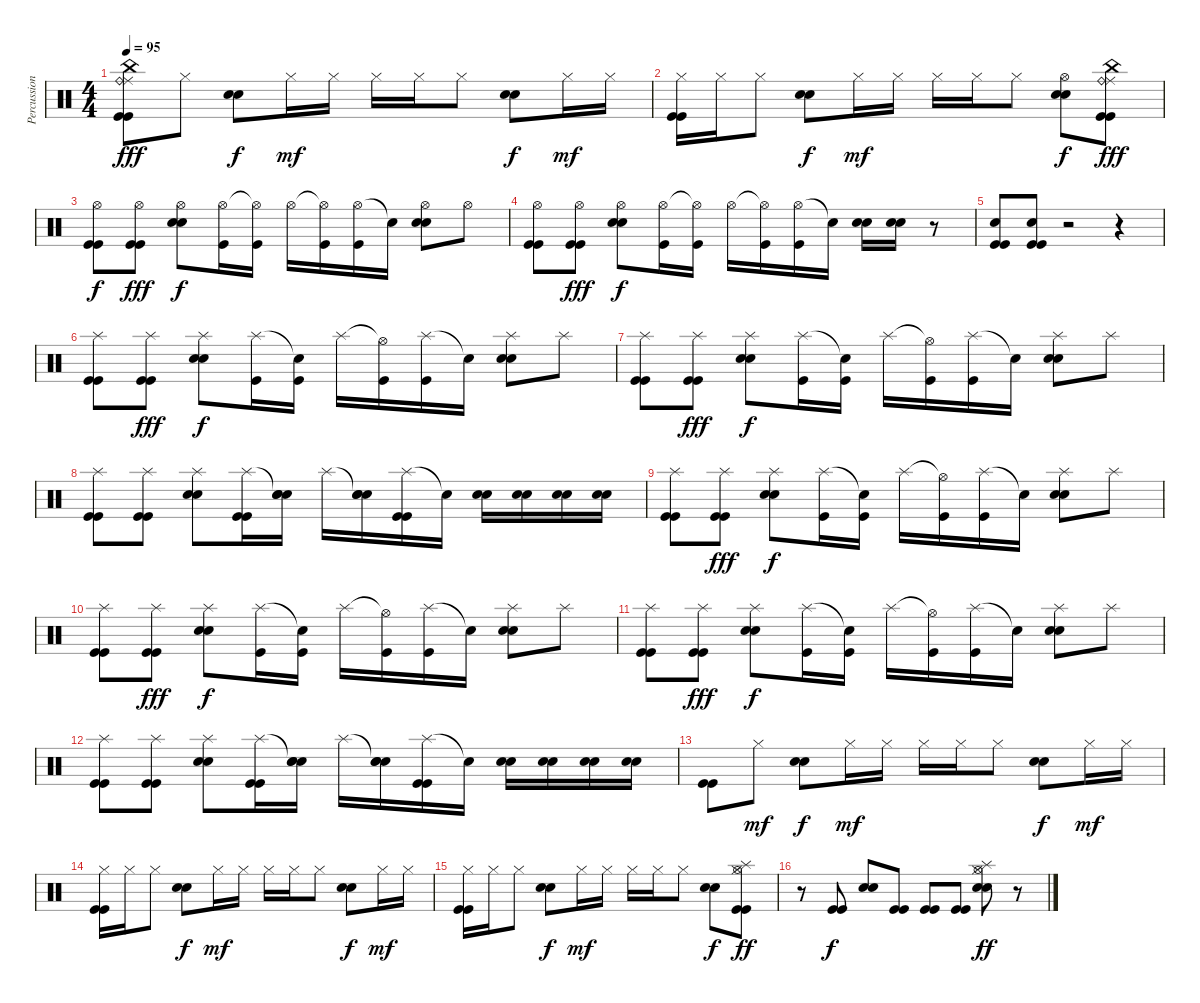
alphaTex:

\track ("Percussions" "Percussion") {instrument percussion}
\staff {score}
\articulation defaults
\ts (4 4)
\tempo 95
\clef neutral
\ks c
("China (hit)" "Ride (middle)" "Ride (bell)" "Kick (hit)" "Kick (hit)").8{dy fff} "Hi-Hat (closed)".8 ("Electric Snare (hit)" "Electric Snare (hit)").8{dy f} "Hi-Hat (closed)".16{dy mf} "Hi-Hat (closed)".16 "Hi-Hat (closed)".16 "Hi-Hat (closed)".16 "Hi-Hat (closed)".8 ("Electric Snare (hit)" "Electric Snare (hit)").8{dy f} "Hi-Hat (closed)".16{dy mf} "Hi-Hat (closed)".16 |
("Hi-Hat (closed)" "Kick (hit)" "Kick (hit)").16 "Hi-Hat (closed)".16 "Hi-Hat (closed)".8 ("Electric Snare (hit)" "Electric Snare (hit)").8{dy f} "Hi-Hat (closed)".16{dy mf} "Hi-Hat (closed)".16 "Hi-Hat (closed)".16 "Hi-Hat (closed)".16 "Hi-Hat (closed)".8 ("Hi-Hat (open)" "Electric Snare (hit)" "Electric Snare (hit)").8{dy f} ("China (hit)" "Ride (middle)" "Ride (bell)" "Kick (hit)" "Kick (hit)").8{dy fff} |
("Hi-Hat (open)" "Kick (hit)" "Kick (hit)").8{dy f} ("Hi-Hat (open)" "Kick (hit)" "Kick (hit)").8{dy fff} ("Hi-Hat (open)" "Electric Snare (hit)" "Electric Snare (hit)").8{dy f} ("Hi-Hat (open)" "Kick (hit)").16 ("Hi-Hat (open)"{t} "Kick (hit)").16 "Hi-Hat (open)".16 ("Hi-Hat (open)"{t} "Kick (hit)").16 ("Hi-Hat (open)" "Kick (hit)").16 "Snare (hit)"{t}.16 ("Hi-Hat (open)" "Electric Snare (hit)" "Electric Snare (hit)").8 "Hi-Hat (open)".8 |
("Hi-Hat (open)" "Kick (hit)" "Kick (hit)").8 ("Hi-Hat (open)" "Kick (hit)" "Kick (hit)").8{dy fff} ("Hi-Hat (open)" "Electric Snare (hit)" "Electric Snare (hit)").8{dy f} ("Hi-Hat (open)" "Kick (hit)").16 ("Hi-Hat (open)"{t} "Kick (hit)").16 "Hi-Hat (open)".16 ("Hi-Hat (open)"{t} "Kick (hit)").16 ("Hi-Hat (open)" "Kick (hit)").16 "Snare (hit)"{t}.16 ("Electric Snare (hit)" "Electric Snare (hit)").16 ("Electric Snare (hit)" "Electric Snare (hit)").16 r.8 |
("Electric Snare (hit)" "Kick (hit)" "Kick (hit)").8 ("Electric Snare (hit)" "Kick (hit)" "Kick (hit)").8 r.2 r.4 |
("Splash (hit)" "Kick (hit)" "Kick (hit)").8 ("Splash (hit)" "Kick (hit)" "Kick (hit)").8{dy fff} ("Splash (hit)" "Electric Snare (hit)" "Electric Snare (hit)").8{dy f} ("Splash (hit)" "Kick (hit)").16 ("Snare (hit)"{t} "Kick (hit)").16 "Splash (hit)".16 ("Hi-Hat (open)"{t} "Kick (hit)").16 ("Splash (hit)" "Kick (hit)").16 "Snare (hit)"{t}.16 ("Splash (hit)" "Electric Snare (hit)" "Electric Snare (hit)").8 "Splash (hit)".8 |
("Splash (hit)" "Kick (hit)" "Kick (hit)").8 ("Splash (hit)" "Kick (hit)" "Kick (hit)").8{dy fff} ("Splash (hit)" "Electric Snare (hit)" "Electric Snare (hit)").8{dy f} ("Splash (hit)" "Kick (hit)").16 ("Snare (hit)"{t} "Kick (hit)").16 "Splash (hit)".16 ("Hi-Hat (open)"{t} "Kick (hit)").16 ("Splash (hit)" "Kick (hit)").16 "Snare (hit)"{t}.16 ("Splash (hit)" "Electric Snare (hit)" "Electric Snare (hit)").8 "Splash (hit)".8 |
("Splash (hit)" "Kick (hit)" "Kick (hit)").8 ("Splash (hit)" "Kick (hit)" "Kick (hit)").8 ("Splash (hit)" "Electric Snare (hit)" "Electric Snare (hit)").8 ("Splash (hit)" "Kick (hit)" "Kick (hit)").16 ("Snare (hit)"{t} "Electric Snare (hit)" "Electric Snare (hit)").16 "Splash (hit)".16 ("Snare (hit)"{t} "Electric Snare (hit)" "Electric Snare (hit)").16 ("Splash (hit)" "Kick (hit)" "Kick (hit)").16 "Snare (hit)"{t}.16 ("Electric Snare (hit)" "Electric Snare (hit)").16 ("Electric Snare (hit)" "Electric Snare (hit)").16 ("Electric Snare (hit)" "Electric Snare (hit)").16 ("Electric Snare (hit)" "Electric Snare (hit)").16 |
("Splash (hit)" "Kick (hit)" "Kick (hit)").8 ("Splash (hit)" "Kick (hit)" "Kick (hit)").8{dy fff} ("Splash (hit)" "Electric Snare (hit)" "Electric Snare (hit)").8{dy f} ("Splash (hit)" "Kick (hit)").16 ("Snare (hit)"{t} "Kick (hit)").16 "Splash (hit)".16 ("Hi-Hat (open)"{t} "Kick (hit)").16 ("Splash (hit)" "Kick (hit)").16 "Snare (hit)"{t}.16 ("Splash (hit)" "Electric Snare (hit)" "Electric Snare (hit)").8 "Splash (hit)".8 |
("Splash (hit)" "Kick (hit)" "Kick (hit)").8 ("Splash (hit)" "Kick (hit)" "Kick (hit)").8{dy fff} ("Splash (hit)" "Electric Snare (hit)" "Electric Snare (hit)").8{dy f} ("Splash (hit)" "Kick (hit)").16 ("Snare (hit)"{t} "Kick (hit)").16 "Splash (hit)".16 ("Hi-Hat (open)"{t} "Kick (hit)").16 ("Splash (hit)" "Kick (hit)").16 "Snare (hit)"{t}.16 ("Splash (hit)" "Electric Snare (hit)" "Electric Snare (hit)").8 "Splash (hit)".8 |
("Splash (hit)" "Kick (hit)" "Kick (hit)").8 ("Splash (hit)" "Kick (hit)" "Kick (hit)").8{dy fff} ("Splash (hit)" "Electric Snare (hit)" "Electric Snare (hit)").8{dy f} ("Splash (hit)" "Kick (hit)").16 ("Snare (hit)"{t} "Kick (hit)").16 "Splash (hit)".16 ("Hi-Hat (open)"{t} "Kick (hit)").16 ("Splash (hit)" "Kick (hit)").16 "Snare (hit)"{t}.16 ("Splash (hit)" "Electric Snare (hit)" "Electric Snare (hit)").8 "Splash (hit)".8 |
("Splash (hit)" "Kick (hit)" "Kick (hit)").8 ("Splash (hit)" "Kick (hit)" "Kick (hit)").8 ("Splash (hit)" "Electric Snare (hit)" "Electric Snare (hit)").8 ("Splash (hit)" "Kick (hit)" "Kick (hit)").16 ("Snare (hit)"{t} "Electric Snare (hit)" "Electric Snare (hit)").16 "Splash (hit)".16 ("Snare (hit)"{t} "Electric Snare (hit)" "Electric Snare (hit)").16 ("Splash (hit)" "Kick (hit)" "Kick (hit)").16 "Snare (hit)"{t}.16 ("Electric Snare (hit)" "Electric Snare (hit)").16 ("Electric Snare (hit)" "Electric Snare (hit)").16 ("Electric Snare (hit)" "Electric Snare (hit)").16 ("Electric Snare (hit)" "Electric Snare (hit)").16 |
("Kick (hit)" "Kick (hit)").8 "Hi-Hat (closed)".8{dy mf} ("Electric Snare (hit)" "Electric Snare (hit)").8{dy f} "Hi-Hat (closed)".16{dy mf} "Hi-Hat (closed)".16 "Hi-Hat (closed)".16 "Hi-Hat (closed)".16 "Hi-Hat (closed)".8 ("Electric Snare (hit)" "Electric Snare (hit)").8{dy f} "Hi-Hat (closed)".16{dy mf} "Hi-Hat (closed)".16 |
("Hi-Hat (closed)" "Kick (hit)" "Kick (hit)").16 "Hi-Hat (closed)".16 "Hi-Hat (closed)".8 ("Electric Snare (hit)" "Electric Snare (hit)").8{dy f} "Hi-Hat (closed)".16{dy mf} "Hi-Hat (closed)".16 "Hi-Hat (closed)".16 "Hi-Hat (closed)".16 "Hi-Hat (closed)".8 ("Electric Snare (hit)" "Electric Snare (hit)").8{dy f} "Hi-Hat (closed)".16{dy mf} "Hi-Hat (closed)".16 |
("Hi-Hat (closed)" "Kick (hit)" "Kick (hit)").16 "Hi-Hat (closed)".16 "Hi-Hat (closed)".8 ("Electric Snare (hit)" "Electric Snare (hit)").8{dy f} "Hi-Hat (closed)".16{dy mf} "Hi-Hat (closed)".16 "Hi-Hat (closed)".16 "Hi-Hat (closed)".16 "Hi-Hat (closed)".8 ("Electric Snare (hit)" "Electric Snare (hit)").8{dy f} ("Hi-Hat (closed)" "Splash (hit)" "Hi-Hat (open)" "Kick (hit)" "Kick (hit)").8{dy ff} |
r.8 ("Kick (hit)" "Kick (hit)").8{dy f} ("Electric Snare (hit)" "Electric Snare (hit)").8 ("Kick (hit)" "Kick (hit)").8 ("Kick (hit)" "Kick (hit)").8 ("Kick (hit)" "Kick (hit)").8 ("Hi-Hat (closed)" "Splash (hit)" "Electric Snare (hit)" "Electric Snare (hit)" "Hi-Hat (open)").8{dy ff} r.8
